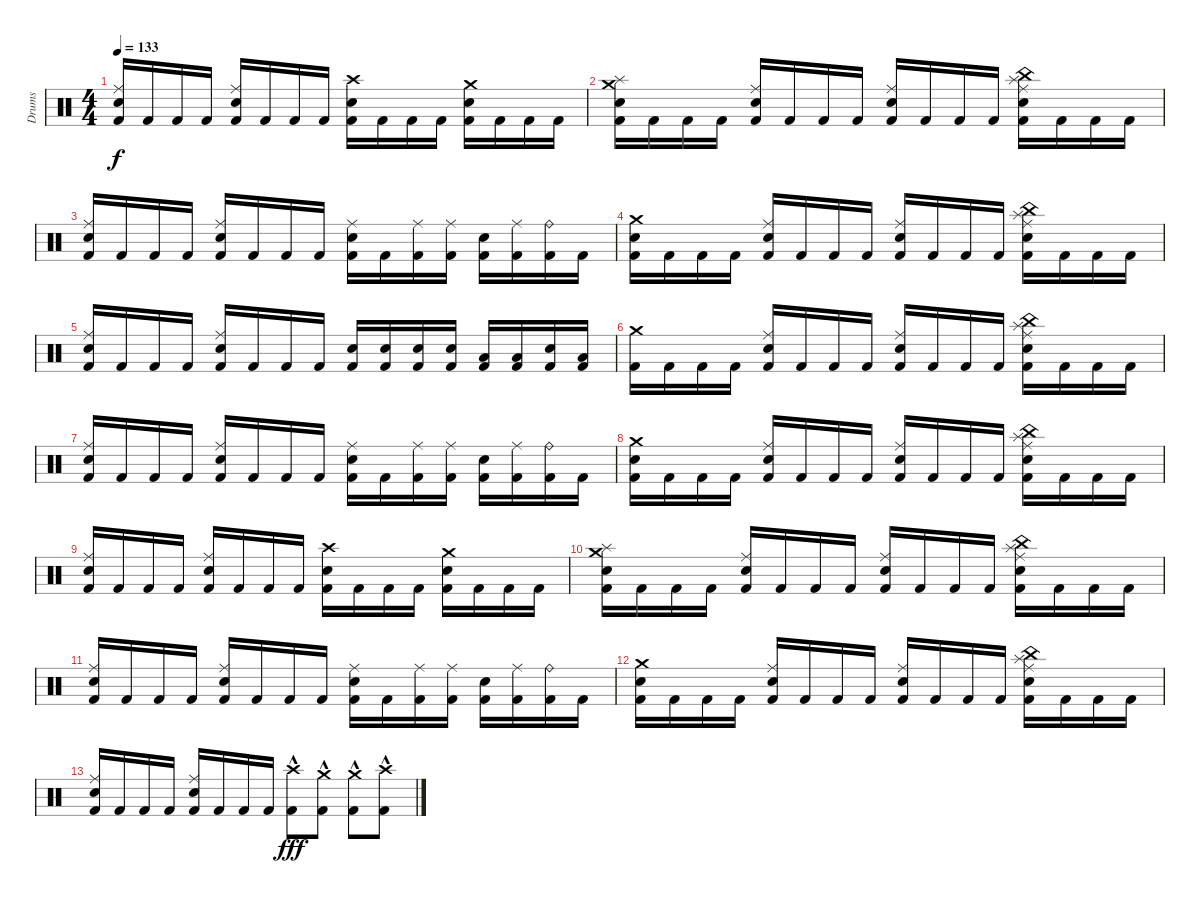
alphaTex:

\track ("Drums" "Drums") {instrument percussion}
\staff {score}
\articulation defaults
\ts (4 4)
\tempo 133
\clef neutral
\ks c
("Electric Snare (hit)" "Ride (middle)" "Kick (hit) 2").16{dy f} "Kick (hit) 2".16 "Kick (hit) 2".16 "Kick (hit) 2".16 ("Electric Snare (hit)" "Ride (middle)" "Kick (hit) 2").16 "Kick (hit) 2".16 "Kick (hit) 2".16 "Kick (hit) 2".16 ("Crash high (hit)" "Electric Snare (hit)" "Kick (hit) 2").16 "Kick (hit) 2".16 "Kick (hit) 2".16 "Kick (hit) 2".16 ("Crash medium (hit)" "Electric Snare (hit)" "Kick (hit) 2").16 "Kick (hit) 2".16 "Kick (hit) 2".16 "Kick (hit) 2".16 |
("Crash medium (hit)" "Splash (hit)" "Electric Snare (hit)" "Kick (hit) 2").16 "Kick (hit) 2".16 "Kick (hit) 2".16 "Kick (hit) 2".16 ("Electric Snare (hit)" "Ride (middle)" "Kick (hit) 2").16 "Kick (hit) 2".16 "Kick (hit) 2".16 "Kick (hit) 2".16 ("Electric Snare (hit)" "Ride (middle)" "Kick (hit) 2").16 "Kick (hit) 2".16 "Kick (hit) 2".16 "Kick (hit) 2".16 ("Splash (hit)" "China (hit)" "Electric Snare (hit)" "Ride (middle)" "Kick (hit) 2").16 "Kick (hit) 2".16 "Kick (hit) 2".16 "Kick (hit) 2".16 |
("Electric Snare (hit)" "Ride (middle)" "Kick (hit) 2").16 "Kick (hit) 2".16 "Kick (hit) 2".16 "Kick (hit) 2".16 ("Electric Snare (hit)" "Ride (middle)" "Kick (hit) 2").16 "Kick (hit) 2".16 "Kick (hit) 2".16 "Kick (hit) 2".16 ("Electric Snare (hit)" "Ride (middle)" "Kick (hit) 2").16 "Kick (hit) 2".16 ("Ride (middle)" "Kick (hit) 2").16 ("Ride (middle)" "Kick (hit) 2").16 ("Electric Snare (hit)" "Kick (hit) 2").16 ("Ride (middle)" "Kick (hit) 2").16 ("Ride (bell)" "Kick (hit) 2").16 "Kick (hit) 2".16 |
("Crash medium (hit)" "Electric Snare (hit)" "Kick (hit) 2").16 "Kick (hit) 2".16 "Kick (hit) 2".16 "Kick (hit) 2".16 ("Electric Snare (hit)" "Ride (middle)" "Kick (hit) 2").16 "Kick (hit) 2".16 "Kick (hit) 2".16 "Kick (hit) 2".16 ("Electric Snare (hit)" "Ride (middle)" "Kick (hit) 2").16 "Kick (hit) 2".16 "Kick (hit) 2".16 "Kick (hit) 2".16 ("Splash (hit)" "China (hit)" "Electric Snare (hit)" "Ride (middle)" "Kick (hit) 2").16 "Kick (hit) 2".16 "Kick (hit) 2".16 "Kick (hit) 2".16 |
("Electric Snare (hit)" "Ride (middle)" "Kick (hit) 2").16 "Kick (hit) 2".16 "Kick (hit) 2".16 "Kick (hit) 2".16 ("Electric Snare (hit)" "Ride (middle)" "Kick (hit) 2").16 "Kick (hit) 2".16 "Kick (hit) 2".16 "Kick (hit) 2".16 ("Electric Snare (hit)" "Kick (hit) 2").16 ("Electric Snare (hit)" "Kick (hit) 2").16 ("Electric Snare (hit)" "Kick (hit) 2").16 ("Electric Snare (hit)" "Kick (hit) 2").16 ("Low Tom (hit)" "Kick (hit) 2").16 ("Low Tom (hit)" "Kick (hit) 2").16 ("Electric Snare (hit)" "Kick (hit) 2").16 ("Low Tom (hit)" "Kick (hit) 2").16 |
("Crash medium (hit)" "Kick (hit) 2").16 "Kick (hit) 2".16 "Kick (hit) 2".16 "Kick (hit) 2".16 ("Electric Snare (hit)" "Ride (middle)" "Kick (hit) 2").16 "Kick (hit) 2".16 "Kick (hit) 2".16 "Kick (hit) 2".16 ("Electric Snare (hit)" "Ride (middle)" "Kick (hit) 2").16 "Kick (hit) 2".16 "Kick (hit) 2".16 "Kick (hit) 2".16 ("Splash (hit)" "China (hit)" "Electric Snare (hit)" "Ride (middle)" "Kick (hit) 2").16 "Kick (hit) 2".16 "Kick (hit) 2".16 "Kick (hit) 2".16 |
("Electric Snare (hit)" "Ride (middle)" "Kick (hit) 2").16 "Kick (hit) 2".16 "Kick (hit) 2".16 "Kick (hit) 2".16 ("Electric Snare (hit)" "Ride (middle)" "Kick (hit) 2").16 "Kick (hit) 2".16 "Kick (hit) 2".16 "Kick (hit) 2".16 ("Electric Snare (hit)" "Ride (middle)" "Kick (hit) 2").16 "Kick (hit) 2".16 ("Ride (middle)" "Kick (hit) 2").16 ("Ride (middle)" "Kick (hit) 2").16 ("Electric Snare (hit)" "Kick (hit) 2").16 ("Ride (middle)" "Kick (hit) 2").16 ("Ride (bell)" "Kick (hit) 2").16 "Kick (hit) 2".16 |
("Crash medium (hit)" "Electric Snare (hit)" "Kick (hit) 2").16 "Kick (hit) 2".16 "Kick (hit) 2".16 "Kick (hit) 2".16 ("Electric Snare (hit)" "Ride (middle)" "Kick (hit) 2").16 "Kick (hit) 2".16 "Kick (hit) 2".16 "Kick (hit) 2".16 ("Electric Snare (hit)" "Ride (middle)" "Kick (hit) 2").16 "Kick (hit) 2".16 "Kick (hit) 2".16 "Kick (hit) 2".16 ("Splash (hit)" "China (hit)" "Electric Snare (hit)" "Ride (middle)" "Kick (hit) 2").16 "Kick (hit) 2".16 "Kick (hit) 2".16 "Kick (hit) 2".16 |
("Electric Snare (hit)" "Ride (middle)" "Kick (hit) 2").16 "Kick (hit) 2".16 "Kick (hit) 2".16 "Kick (hit) 2".16 ("Electric Snare (hit)" "Ride (middle)" "Kick (hit) 2").16 "Kick (hit) 2".16 "Kick (hit) 2".16 "Kick (hit) 2".16 ("Crash high (hit)" "Electric Snare (hit)" "Kick (hit) 2").16 "Kick (hit) 2".16 "Kick (hit) 2".16 "Kick (hit) 2".16 ("Crash medium (hit)" "Electric Snare (hit)" "Kick (hit) 2").16 "Kick (hit) 2".16 "Kick (hit) 2".16 "Kick (hit) 2".16 |
("Crash medium (hit)" "Splash (hit)" "Electric Snare (hit)" "Kick (hit) 2").16 "Kick (hit) 2".16 "Kick (hit) 2".16 "Kick (hit) 2".16 ("Electric Snare (hit)" "Ride (middle)" "Kick (hit) 2").16 "Kick (hit) 2".16 "Kick (hit) 2".16 "Kick (hit) 2".16 ("Electric Snare (hit)" "Ride (middle)" "Kick (hit) 2").16 "Kick (hit) 2".16 "Kick (hit) 2".16 "Kick (hit) 2".16 ("Splash (hit)" "China (hit)" "Electric Snare (hit)" "Ride (middle)" "Kick (hit) 2").16 "Kick (hit) 2".16 "Kick (hit) 2".16 "Kick (hit) 2".16 |
("Electric Snare (hit)" "Ride (middle)" "Kick (hit) 2").16 "Kick (hit) 2".16 "Kick (hit) 2".16 "Kick (hit) 2".16 ("Electric Snare (hit)" "Ride (middle)" "Kick (hit) 2").16 "Kick (hit) 2".16 "Kick (hit) 2".16 "Kick (hit) 2".16 ("Electric Snare (hit)" "Ride (middle)" "Kick (hit) 2").16 "Kick (hit) 2".16 ("Ride (middle)" "Kick (hit) 2").16 ("Ride (middle)" "Kick (hit) 2").16 ("Electric Snare (hit)" "Kick (hit) 2").16 ("Ride (middle)" "Kick (hit) 2").16 ("Ride (bell)" "Kick (hit) 2").16 "Kick (hit) 2".16 |
("Crash medium (hit)" "Electric Snare (hit)" "Kick (hit) 2").16 "Kick (hit) 2".16 "Kick (hit) 2".16 "Kick (hit) 2".16 ("Electric Snare (hit)" "Ride (middle)" "Kick (hit) 2").16 "Kick (hit) 2".16 "Kick (hit) 2".16 "Kick (hit) 2".16 ("Electric Snare (hit)" "Ride (middle)" "Kick (hit) 2").16 "Kick (hit) 2".16 "Kick (hit) 2".16 "Kick (hit) 2".16 ("Splash (hit)" "China (hit)" "Electric Snare (hit)" "Ride (middle)" "Kick (hit) 2").16 "Kick (hit) 2".16 "Kick (hit) 2".16 "Kick (hit) 2".16 |
("Electric Snare (hit)" "Ride (middle)" "Kick (hit) 2").16 "Kick (hit) 2".16 "Kick (hit) 2".16 "Kick (hit) 2".16 ("Electric Snare (hit)" "Ride (middle)" "Kick (hit) 2").16 "Kick (hit) 2".16 "Kick (hit) 2".16 "Kick (hit) 2".16 ("Crash high (hit)" "Kick (hit) 2"{hac}).8{dy fff} ("Crash medium (hit)" "Kick (hit) 2"{hac}).8 ("Crash medium (hit)" "Kick (hit) 2"{hac}).8 ("Crash high (hit)" "Kick (hit) 2"{hac}).8
